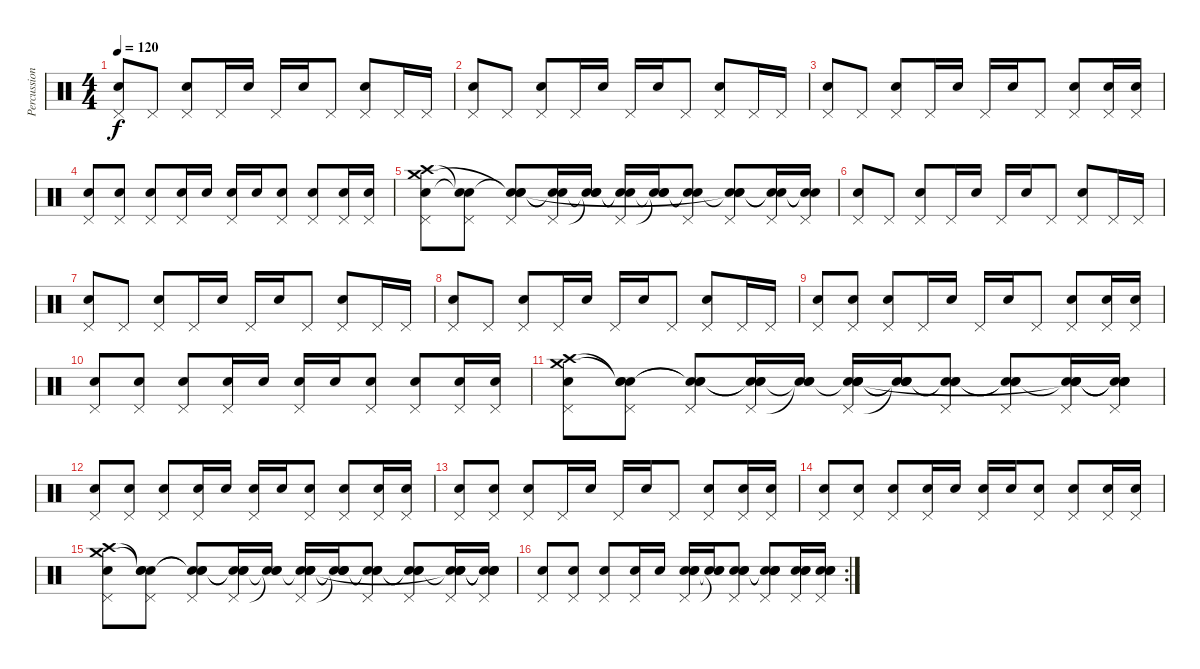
\track ("Percussion" "Percussion") {instrument percussion}
\staff {score}
\articulation defaults
\ts (4 4)
\tempo 120
\clef neutral
\ks c
("Pedal Hi-Hat (hit)" "Snare (hit) 2").8{dy f} "Pedal Hi-Hat (hit)".8 ("Pedal Hi-Hat (hit)" "Electric Snare (hit)").8 "Pedal Hi-Hat (hit)".16 "Snare (hit) 2".16 "Pedal Hi-Hat (hit)".16 "Snare (hit) 2".16 "Pedal Hi-Hat (hit)".8 ("Pedal Hi-Hat (hit)" "Electric Snare (hit)").8 "Pedal Hi-Hat (hit)".16 "Pedal Hi-Hat (hit)".16 |
("Pedal Hi-Hat (hit)" "Snare (hit) 2").8 "Pedal Hi-Hat (hit)".8 ("Pedal Hi-Hat (hit)" "Electric Snare (hit)").8 "Pedal Hi-Hat (hit)".16 "Snare (hit) 2".16 "Pedal Hi-Hat (hit)".16 "Snare (hit) 2".16 "Pedal Hi-Hat (hit)".8 ("Pedal Hi-Hat (hit)" "Electric Snare (hit)").8 "Pedal Hi-Hat (hit)".16 "Pedal Hi-Hat (hit)".16 |
("Pedal Hi-Hat (hit)" "Snare (hit) 2").8 "Pedal Hi-Hat (hit)".8 ("Pedal Hi-Hat (hit)" "Electric Snare (hit)").8 "Pedal Hi-Hat (hit)".16 "Snare (hit) 2".16 "Pedal Hi-Hat (hit)".16 "Snare (hit) 2".16 "Pedal Hi-Hat (hit)".8 ("Pedal Hi-Hat (hit)" "Electric Snare (hit)").8 ("Pedal Hi-Hat (hit)" "Snare (hit) 2").16 ("Pedal Hi-Hat (hit)" "Snare (hit) 2").16 |
("Pedal Hi-Hat (hit)" "Snare (hit) 2").8 ("Pedal Hi-Hat (hit)" "Snare (hit) 2").8 ("Pedal Hi-Hat (hit)" "Electric Snare (hit)").8 ("Pedal Hi-Hat (hit)" "Snare (hit) 2").16 "Snare (hit) 2".16 ("Pedal Hi-Hat (hit)" "Snare (hit) 2").16 "Snare (hit) 2".16 ("Pedal Hi-Hat (hit)" "Snare (hit) 2").8 ("Pedal Hi-Hat (hit)" "Electric Snare (hit)").8 ("Pedal Hi-Hat (hit)" "Snare (hit) 2").16 ("Pedal Hi-Hat (hit)" "Snare (hit) 2").16 |
("Pedal Hi-Hat (hit)" "Crash high (hit)" "Snare (hit) 2" "Crash medium (hit)").8 ("Pedal Hi-Hat (hit)" "Snare (hit)"{t} "Snare (hit)"{t}).8 ("Pedal Hi-Hat (hit)" "Snare (hit)"{t} "Electric Snare (hit)" "Snare (hit)"{t}).8 ("Pedal Hi-Hat (hit)" "Snare (hit)"{t} "Snare (hit)"{t}).16 ("Snare (hit)"{t} "Snare (hit) 2" "Snare (hit)"{t}).16 ("Pedal Hi-Hat (hit)" "Snare (hit)"{t} "Snare (hit)"{t}).16 ("Snare (hit)"{t} "Snare (hit) 2" "Snare (hit)"{t}).16 ("Pedal Hi-Hat (hit)" "Snare (hit)"{t} "Snare (hit)"{t}).8 ("Pedal Hi-Hat (hit)" "Snare (hit)"{t} "Electric Snare (hit)" "Snare (hit)"{t}).8 ("Pedal Hi-Hat (hit)" "Snare (hit)"{t} "Snare (hit)"{t}).16 ("Pedal Hi-Hat (hit)" "Snare (hit)"{t} "Snare (hit)"{t}).16 |
("Pedal Hi-Hat (hit)" "Snare (hit) 2").8 "Pedal Hi-Hat (hit)".8 ("Pedal Hi-Hat (hit)" "Electric Snare (hit)").8 "Pedal Hi-Hat (hit)".16 "Snare (hit) 2".16 "Pedal Hi-Hat (hit)".16 "Snare (hit) 2".16 "Pedal Hi-Hat (hit)".8 ("Pedal Hi-Hat (hit)" "Electric Snare (hit)").8 "Pedal Hi-Hat (hit)".16 "Pedal Hi-Hat (hit)".16 |
("Pedal Hi-Hat (hit)" "Snare (hit) 2").8 "Pedal Hi-Hat (hit)".8 ("Pedal Hi-Hat (hit)" "Electric Snare (hit)").8 "Pedal Hi-Hat (hit)".16 "Snare (hit) 2".16 "Pedal Hi-Hat (hit)".16 "Snare (hit) 2".16 "Pedal Hi-Hat (hit)".8 ("Pedal Hi-Hat (hit)" "Electric Snare (hit)").8 "Pedal Hi-Hat (hit)".16 "Pedal Hi-Hat (hit)".16 |
("Pedal Hi-Hat (hit)" "Snare (hit) 2").8 "Pedal Hi-Hat (hit)".8 ("Pedal Hi-Hat (hit)" "Electric Snare (hit)").8 "Pedal Hi-Hat (hit)".16 "Snare (hit) 2".16 "Pedal Hi-Hat (hit)".16 "Snare (hit) 2".16 "Pedal Hi-Hat (hit)".8 ("Pedal Hi-Hat (hit)" "Electric Snare (hit)").8 "Pedal Hi-Hat (hit)".16 "Pedal Hi-Hat (hit)".16 |
("Pedal Hi-Hat (hit)" "Snare (hit) 2").8 ("Pedal Hi-Hat (hit)" "Snare (hit) 2").8 ("Pedal Hi-Hat (hit)" "Electric Snare (hit)").8 "Pedal Hi-Hat (hit)".16 "Snare (hit) 2".16 "Pedal Hi-Hat (hit)".16 "Snare (hit) 2".16 "Pedal Hi-Hat (hit)".8 ("Pedal Hi-Hat (hit)" "Electric Snare (hit)").8 ("Pedal Hi-Hat (hit)" "Snare (hit) 2").16 ("Pedal Hi-Hat (hit)" "Snare (hit) 2").16 |
("Pedal Hi-Hat (hit)" "Snare (hit) 2").8 ("Pedal Hi-Hat (hit)" "Snare (hit) 2").8 ("Pedal Hi-Hat (hit)" "Electric Snare (hit)").8 ("Pedal Hi-Hat (hit)" "Snare (hit) 2").16 "Snare (hit) 2".16 ("Pedal Hi-Hat (hit)" "Snare (hit) 2").16 "Snare (hit) 2".16 ("Pedal Hi-Hat (hit)" "Snare (hit) 2").8 ("Pedal Hi-Hat (hit)" "Electric Snare (hit)").8 ("Pedal Hi-Hat (hit)" "Snare (hit) 2").16 ("Pedal Hi-Hat (hit)" "Snare (hit) 2").16 |
("Pedal Hi-Hat (hit)" "Crash high (hit)" "Snare (hit) 2" "Crash medium (hit)").8 ("Pedal Hi-Hat (hit)" "Snare (hit)"{t} "Snare (hit) 2" "Snare (hit)"{t}).8 ("Pedal Hi-Hat (hit)" "Snare (hit)"{t} "Electric Snare (hit)" "Snare (hit)"{t}).8 ("Pedal Hi-Hat (hit)" "Snare (hit)"{t} "Electric Snare (hit)" "Snare (hit)"{t}).16 ("Snare (hit)"{t} "Snare (hit) 2" "Snare (hit)"{t}).16 ("Pedal Hi-Hat (hit)" "Snare (hit)"{t} "Electric Snare (hit)" "Snare (hit) 2" "Snare (hit)").16 ("Snare (hit)"{t} "Electric Snare (hit)"{t} "Snare (hit) 2" "Snare (hit)"{t}).16 ("Pedal Hi-Hat (hit)" "Snare (hit)"{t} "Snare (hit) 2" "Snare (hit)"{t}).8 ("Pedal Hi-Hat (hit)" "Snare (hit)"{t} "Electric Snare (hit)" "Snare (hit)"{t}).8 ("Pedal Hi-Hat (hit)" "Snare (hit)"{t} "Electric Snare (hit)" "Snare (hit) 2" "Snare (hit)"{t}).16 ("Pedal Hi-Hat (hit)" "Snare (hit)"{t} "Snare (hit)"{t} "Snare (hit) 2" "Snare (hit)"{t}).16 |
("Pedal Hi-Hat (hit)" "Snare (hit) 2").8 ("Pedal Hi-Hat (hit)" "Snare (hit) 2").8 ("Pedal Hi-Hat (hit)" "Electric Snare (hit)").8 ("Pedal Hi-Hat (hit)" "Snare (hit) 2").16 "Snare (hit) 2".16 ("Pedal Hi-Hat (hit)" "Snare (hit) 2").16 "Snare (hit) 2".16 ("Pedal Hi-Hat (hit)" "Snare (hit) 2").8 ("Pedal Hi-Hat (hit)" "Electric Snare (hit)").8 ("Pedal Hi-Hat (hit)" "Snare (hit) 2").16 ("Pedal Hi-Hat (hit)" "Snare (hit) 2").16 |
("Pedal Hi-Hat (hit)" "Snare (hit) 2").8 ("Pedal Hi-Hat (hit)" "Snare (hit) 2").8 ("Pedal Hi-Hat (hit)" "Electric Snare (hit)").8 "Pedal Hi-Hat (hit)".16 "Snare (hit) 2".16 "Pedal Hi-Hat (hit)".16 "Snare (hit) 2".16 "Pedal Hi-Hat (hit)".8 ("Pedal Hi-Hat (hit)" "Electric Snare (hit)").8 ("Pedal Hi-Hat (hit)" "Snare (hit) 2").16 ("Pedal Hi-Hat (hit)" "Snare (hit) 2").16 |
("Pedal Hi-Hat (hit)" "Snare (hit) 2").8 ("Pedal Hi-Hat (hit)" "Snare (hit) 2").8 ("Pedal Hi-Hat (hit)" "Electric Snare (hit)").8 ("Pedal Hi-Hat (hit)" "Snare (hit) 2").16 "Snare (hit) 2".16 ("Pedal Hi-Hat (hit)" "Snare (hit) 2").16 "Snare (hit) 2".16 ("Pedal Hi-Hat (hit)" "Snare (hit) 2").8 ("Pedal Hi-Hat (hit)" "Electric Snare (hit)").8 ("Pedal Hi-Hat (hit)" "Snare (hit) 2").16 ("Pedal Hi-Hat (hit)" "Snare (hit) 2").16 |
("Pedal Hi-Hat (hit)" "Crash high (hit)" "Snare (hit) 2" "Crash medium (hit)").8 ("Pedal Hi-Hat (hit)" "Snare (hit)"{t} "Snare (hit) 2" "Snare (hit)"{t}).8 ("Pedal Hi-Hat (hit)" "Snare (hit)"{t} "Electric Snare (hit)" "Snare (hit)"{t}).8 ("Pedal Hi-Hat (hit)" "Snare (hit)"{t} "Electric Snare (hit)" "Snare (hit)"{t}).16 ("Snare (hit)"{t} "Snare (hit) 2" "Snare (hit)"{t}).16 ("Pedal Hi-Hat (hit)" "Snare (hit)"{t} "Electric Snare (hit)" "Snare (hit) 2" "Snare (hit)").16 ("Snare (hit)"{t} "Electric Snare (hit)"{t} "Snare (hit) 2" "Snare (hit)"{t}).16 ("Pedal Hi-Hat (hit)" "Snare (hit)"{t} "Snare (hit) 2" "Snare (hit)"{t}).8 ("Pedal Hi-Hat (hit)" "Snare (hit)"{t} "Electric Snare (hit)" "Snare (hit)"{t}).8 ("Pedal Hi-Hat (hit)" "Snare (hit)"{t} "Electric Snare (hit)" "Snare (hit) 2" "Snare (hit)"{t}).16 ("Pedal Hi-Hat (hit)" "Snare (hit)"{t} "Snare (hit)"{t} "Snare (hit) 2" "Snare (hit)"{t}).16 |
\rc 2
("Pedal Hi-Hat (hit)" "Snare (hit) 2").8 ("Pedal Hi-Hat (hit)" "Snare (hit) 2").8 ("Pedal Hi-Hat (hit)" "Electric Snare (hit)").8 ("Pedal Hi-Hat (hit)" "Snare (hit) 2").16 "Snare (hit) 2".16 ("Pedal Hi-Hat (hit)" "Electric Snare (hit)" "Electric Snare (hit)" "Snare (hit) 2").16 ("Snare (hit)"{t} "Electric Snare (hit)"{t} "Snare (hit) 2").16 ("Pedal Hi-Hat (hit)" "Electric Snare (hit)" "Electric Snare (hit)" "Snare (hit) 2").8 ("Pedal Hi-Hat (hit)" "Snare (hit)"{t} "Electric Snare (hit)"{t} "Electric Snare (hit)" "Electric Snare (hit)").8 ("Pedal Hi-Hat (hit)" "Electric Snare (hit)" "Electric Snare (hit)" "Snare (hit) 2").16 ("Pedal Hi-Hat (hit)" "Electric Snare (hit)" "Electric Snare (hit)" "Snare (hit) 2").16
